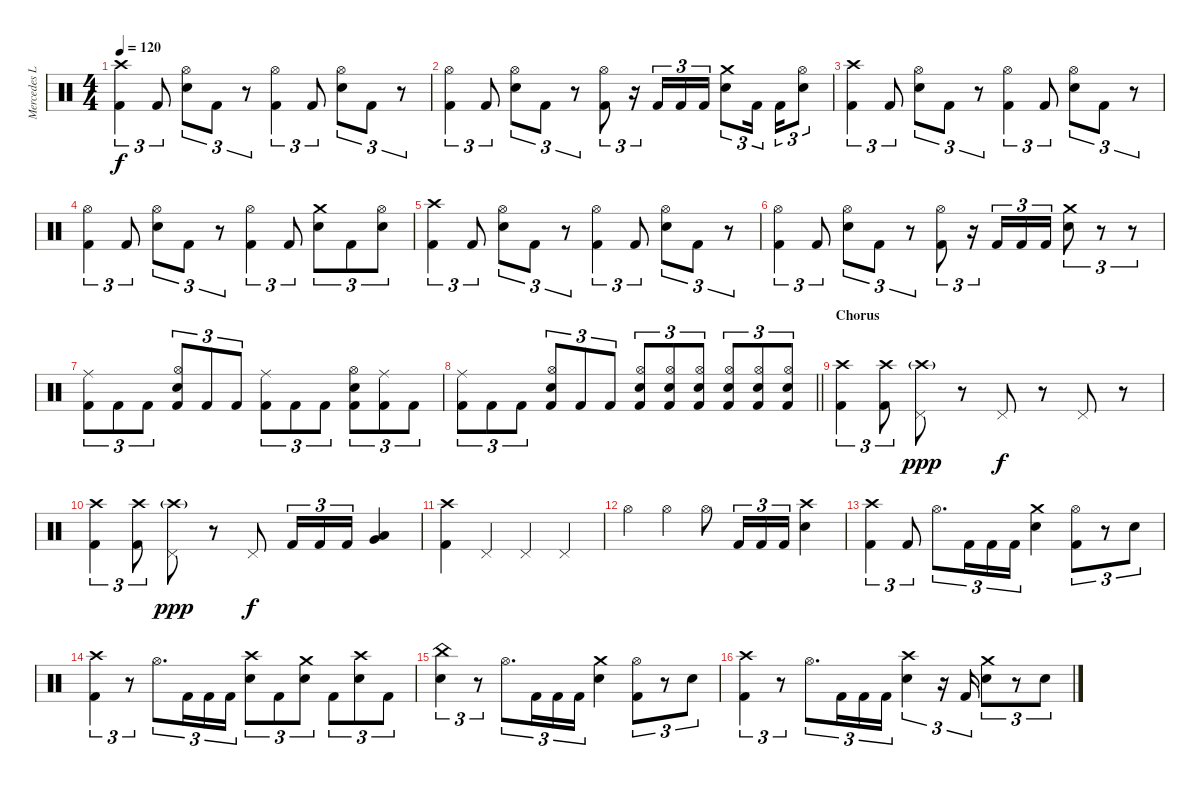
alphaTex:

\track ("Mercedes Lander" "Mercedes L") {instrument percussion}
\staff {score}
\articulation defaults
\ts (4 4)
\tempo 120
\clef neutral
\ks c
("Crash high (hit)" "Kick (hit) 2").4{tu (3 2) dy f} "Kick (hit) 2".8{tu (3 2)} ("Hi-Hat (open)" "Snare (hit) 2").8{tu (3 2)} "Kick (hit) 2".8{tu (3 2)} r.8{tu (3 2)} ("Hi-Hat (open)" "Kick (hit) 2").4{tu (3 2)} "Kick (hit) 2".8{tu (3 2)} ("Hi-Hat (open)" "Snare (hit) 2").8{tu (3 2)} "Kick (hit) 2".8{tu (3 2)} r.8{tu (3 2)} |
("Hi-Hat (open)" "Kick (hit) 2").4{tu (3 2)} "Kick (hit) 2".8{tu (3 2)} ("Hi-Hat (open)" "Snare (hit) 2").8{tu (3 2)} "Kick (hit) 2".8{tu (3 2)} r.8{tu (3 2)} ("Hi-Hat (open)" "Kick (hit) 2").8{tu (3 2)} r.16{tu (3 2)} "Kick (hit) 2".16{tu (3 2)} "Kick (hit) 2".16{tu (3 2)} "Kick (hit) 2".16{tu (3 2)} ("Crash medium (hit)" "Snare (hit) 2").8{tu (3 2)} "Kick (hit) 2".16{tu (3 2) beam splitsecondary} "Kick (hit) 2".16{tu (3 2)} ("Hi-Hat (open)" "Snare (hit) 2").8{tu (3 2)} |
("Crash high (hit)" "Kick (hit) 2").4{tu (3 2)} "Kick (hit) 2".8{tu (3 2)} ("Hi-Hat (open)" "Snare (hit) 2").8{tu (3 2)} "Kick (hit) 2".8{tu (3 2)} r.8{tu (3 2)} ("Hi-Hat (open)" "Kick (hit) 2").4{tu (3 2)} "Kick (hit) 2".8{tu (3 2)} ("Hi-Hat (open)" "Snare (hit) 2").8{tu (3 2)} "Kick (hit) 2".8{tu (3 2)} r.8{tu (3 2)} |
("Hi-Hat (open)" "Kick (hit) 2").4{tu (3 2)} "Kick (hit) 2".8{tu (3 2)} ("Hi-Hat (open)" "Snare (hit) 2").8{tu (3 2)} "Kick (hit) 2".8{tu (3 2)} r.8{tu (3 2)} ("Hi-Hat (open)" "Kick (hit) 2").4{tu (3 2)} "Kick (hit) 2".8{tu (3 2)} ("Crash medium (hit)" "Snare (hit) 2").8{tu (3 2)} "Kick (hit) 2".8{tu (3 2)} ("Hi-Hat (open)" "Snare (hit) 2").8{tu (3 2)} |
("Crash high (hit)" "Kick (hit) 2").4{tu (3 2)} "Kick (hit) 2".8{tu (3 2)} ("Hi-Hat (open)" "Snare (hit) 2").8{tu (3 2)} "Kick (hit) 2".8{tu (3 2)} r.8{tu (3 2)} ("Hi-Hat (open)" "Kick (hit) 2").4{tu (3 2)} "Kick (hit) 2".8{tu (3 2)} ("Hi-Hat (open)" "Snare (hit) 2").8{tu (3 2)} "Kick (hit) 2".8{tu (3 2)} r.8{tu (3 2)} |
("Hi-Hat (open)" "Kick (hit) 2").4{tu (3 2)} "Kick (hit) 2".8{tu (3 2)} ("Hi-Hat (open)" "Snare (hit) 2").8{tu (3 2)} "Kick (hit) 2".8{tu (3 2)} r.8{tu (3 2)} ("Hi-Hat (open)" "Kick (hit) 2").8{tu (3 2)} r.16{tu (3 2)} "Kick (hit) 2".16{tu (3 2)} "Kick (hit) 2".16{tu (3 2)} "Kick (hit) 2".16{tu (3 2)} ("Crash medium (hit)" "Snare (hit) 2").8{tu (3 2)} r.8{tu (3 2)} r.8{tu (3 2)} |
("Ride (middle)" "Kick (hit) 2").8{tu (3 2)} "Kick (hit) 2".8{tu (3 2)} "Kick (hit) 2".8{tu (3 2)} ("Hi-Hat (open)" "Snare (hit) 2" "Kick (hit) 2").8{tu (3 2)} "Kick (hit) 2".8{tu (3 2)} "Kick (hit) 2".8{tu (3 2)} ("Ride (middle)" "Kick (hit) 2").8{tu (3 2)} "Kick (hit) 2".8{tu (3 2)} "Kick (hit) 2".8{tu (3 2)} ("Hi-Hat (open)" "Snare (hit) 2" "Kick (hit) 2").8{tu (3 2)} ("Ride (middle)" "Kick (hit) 2").8{tu (3 2)} "Kick (hit) 2".8{tu (3 2)} |
\barLineRight lightlight
("Ride (middle)" "Kick (hit) 2").8{tu (3 2)} "Kick (hit) 2".8{tu (3 2)} "Kick (hit) 2".8{tu (3 2)} ("Hi-Hat (open)" "Snare (hit) 2" "Kick (hit) 2").8{tu (3 2)} "Kick (hit) 2".8{tu (3 2)} "Kick (hit) 2".8{tu (3 2)} ("Hi-Hat (open)" "Snare (hit) 2" "Kick (hit) 2").8{tu (3 2)} ("Hi-Hat (open)" "Snare (hit) 2" "Kick (hit) 2").8{tu (3 2)} ("Hi-Hat (open)" "Snare (hit) 2" "Kick (hit) 2").8{tu (3 2)} ("Hi-Hat (open)" "Snare (hit) 2" "Kick (hit) 2").8{tu (3 2)} ("Hi-Hat (open)" "Snare (hit) 2" "Kick (hit) 2").8{tu (3 2)} ("Hi-Hat (open)" "Snare (hit) 2" "Kick (hit) 2").8{tu (3 2)} |
\section ("" "Chorus")
("Crash high (hit)" "Kick (hit) 2").4{tu (3 2)} ("Crash high (hit)" "Kick (hit) 2").8{tu (3 2)} ("Crash high (hit)"{g} "Pedal Hi-Hat (hit)").8{dy ppp} r.8 "Pedal Hi-Hat (hit)".8{dy f} r.8 "Pedal Hi-Hat (hit)".8 r.8 |
("Crash high (hit)" "Kick (hit) 2").4{tu (3 2)} ("Crash high (hit)" "Kick (hit) 2").8{tu (3 2)} ("Crash high (hit)"{g} "Pedal Hi-Hat (hit)").8{dy ppp} r.8 "Pedal Hi-Hat (hit)".8{dy f} "Kick (hit) 2".16{tu (3 2)} "Kick (hit) 2".16{tu (3 2)} "Kick (hit) 2".16{tu (3 2)} ("Very Low Tom (hit)" "Low Floor Tom (hit)").4 |
("Crash high (hit)" "Kick (hit) 2").4 "Pedal Hi-Hat (hit)".4 "Pedal Hi-Hat (hit)".4 "Pedal Hi-Hat (hit)".4 |
"Hi-Hat (open)".4 "Hi-Hat (open)".4 "Hi-Hat (open)".8 "Kick (hit) 2".16{tu (3 2)} "Kick (hit) 2".16{tu (3 2)} "Kick (hit) 2".16{tu (3 2)} ("Crash high (hit)" "Snare (hit) 2").4 |
("Crash high (hit)" "Kick (hit) 2").4{tu (3 2)} "Kick (hit) 2".8{tu (3 2)} "Hi-Hat (open)".8{d tu (3 2)} "Kick (hit) 2".16{tu (3 2)} "Kick (hit) 2".16{tu (3 2)} "Kick (hit) 2".16{tu (3 2)} ("Crash medium (hit)" "Snare (hit) 2").4 ("Hi-Hat (open)" "Kick (hit) 2").8{tu (3 2)} r.8{tu (3 2)} "Snare (hit) 2".8{tu (3 2)} |
("Crash high (hit)" "Kick (hit) 2").4{tu (3 2)} r.8{tu (3 2)} "Hi-Hat (open)".8{d tu (3 2)} "Kick (hit) 2".16{tu (3 2)} "Kick (hit) 2".16{tu (3 2)} "Kick (hit) 2".16{tu (3 2)} ("Crash high (hit)" "Snare (hit) 2").8{tu (3 2)} "Kick (hit) 2".8{tu (3 2)} ("Crash medium (hit)" "Snare (hit) 2").8{tu (3 2)} "Kick (hit) 2".8{tu (3 2)} ("Crash high (hit)" "Snare (hit) 2").8{tu (3 2)} "Kick (hit) 2".8{tu (3 2)} |
("China (hit)" "Snare (hit) 2").4{tu (3 2)} r.8{tu (3 2)} "Hi-Hat (open)".8{d tu (3 2)} "Kick (hit) 2".16{tu (3 2)} "Kick (hit) 2".16{tu (3 2)} "Kick (hit) 2".16{tu (3 2)} ("Crash medium (hit)" "Snare (hit) 2").4 ("Hi-Hat (open)" "Kick (hit) 2").8{tu (3 2)} r.8{tu (3 2)} "Snare (hit) 2".8{tu (3 2)} |
("Crash high (hit)" "Kick (hit) 2").4{tu (3 2)} r.8{tu (3 2)} "Hi-Hat (open)".8{d tu (3 2)} "Kick (hit) 2".16{tu (3 2)} "Kick (hit) 2".16{tu (3 2)} "Kick (hit) 2".16{tu (3 2)} ("Crash high (hit)" "Snare (hit) 2").4{tu (3 2)} r.16{tu (3 2)} "Kick (hit) 2".16{tu (3 2)} ("Crash medium (hit)" "Snare (hit) 2").8{tu (3 2)} r.8{tu (3 2)} "Snare (hit) 2".8{tu (3 2)}
